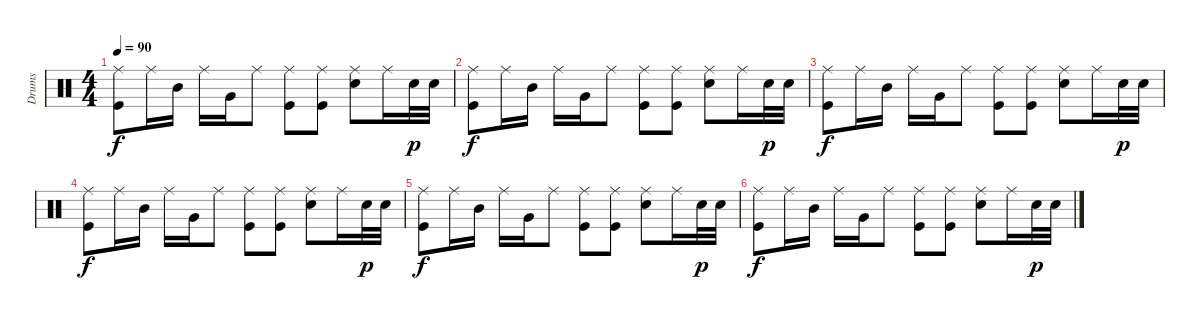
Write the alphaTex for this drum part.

\track ("Drums" "Drums") {instrument percussion}
\staff {score}
\articulation defaults
\ts (4 4)
\tempo 90
\clef neutral
\ks c
("Ride (middle)" "Kick (hit)").8{dy f} "Ride (middle)".16 "Mid Tom (hit)".16 "Ride (middle)".16 "Very Low Tom (hit)".16 "Ride (middle)".8 ("Ride (middle)" "Kick (hit)").8 ("Ride (middle)" "Kick (hit)").8 ("Ride (middle)" "Snare (hit) 2").8 "Ride (middle)".16 "Snare (hit) 2".32{dy p} "Snare (hit) 2".32 |
("Ride (middle)" "Kick (hit)").8{dy f} "Ride (middle)".16 "Mid Tom (hit)".16 "Ride (middle)".16 "Very Low Tom (hit)".16 "Ride (middle)".8 ("Ride (middle)" "Kick (hit)").8 ("Ride (middle)" "Kick (hit)").8 ("Ride (middle)" "Snare (hit) 2").8 "Ride (middle)".16 "Snare (hit) 2".32{dy p} "Snare (hit) 2".32 |
("Ride (middle)" "Kick (hit)").8{dy f} "Ride (middle)".16 "Mid Tom (hit)".16 "Ride (middle)".16 "Very Low Tom (hit)".16 "Ride (middle)".8 ("Ride (middle)" "Kick (hit)").8 ("Ride (middle)" "Kick (hit)").8 ("Ride (middle)" "Snare (hit) 2").8 "Ride (middle)".16 "Snare (hit) 2".32{dy p} "Snare (hit) 2".32 |
("Ride (middle)" "Kick (hit)").8{dy f} "Ride (middle)".16 "Mid Tom (hit)".16 "Ride (middle)".16 "Very Low Tom (hit)".16 "Ride (middle)".8 ("Ride (middle)" "Kick (hit)").8 ("Ride (middle)" "Kick (hit)").8 ("Ride (middle)" "Snare (hit) 2").8 "Ride (middle)".16 "Snare (hit) 2".32{dy p} "Snare (hit) 2".32 |
("Ride (middle)" "Kick (hit)").8{dy f} "Ride (middle)".16 "Mid Tom (hit)".16 "Ride (middle)".16 "Very Low Tom (hit)".16 "Ride (middle)".8 ("Ride (middle)" "Kick (hit)").8 ("Ride (middle)" "Kick (hit)").8 ("Ride (middle)" "Snare (hit) 2").8 "Ride (middle)".16 "Snare (hit) 2".32{dy p} "Snare (hit) 2".32 |
("Ride (middle)" "Kick (hit)").8{dy f} "Ride (middle)".16 "Mid Tom (hit)".16 "Ride (middle)".16 "Very Low Tom (hit)".16 "Ride (middle)".8 ("Ride (middle)" "Kick (hit)").8 ("Ride (middle)" "Kick (hit)").8 ("Ride (middle)" "Snare (hit) 2").8 "Ride (middle)".16 "Snare (hit) 2".32{dy p} "Snare (hit) 2".32
